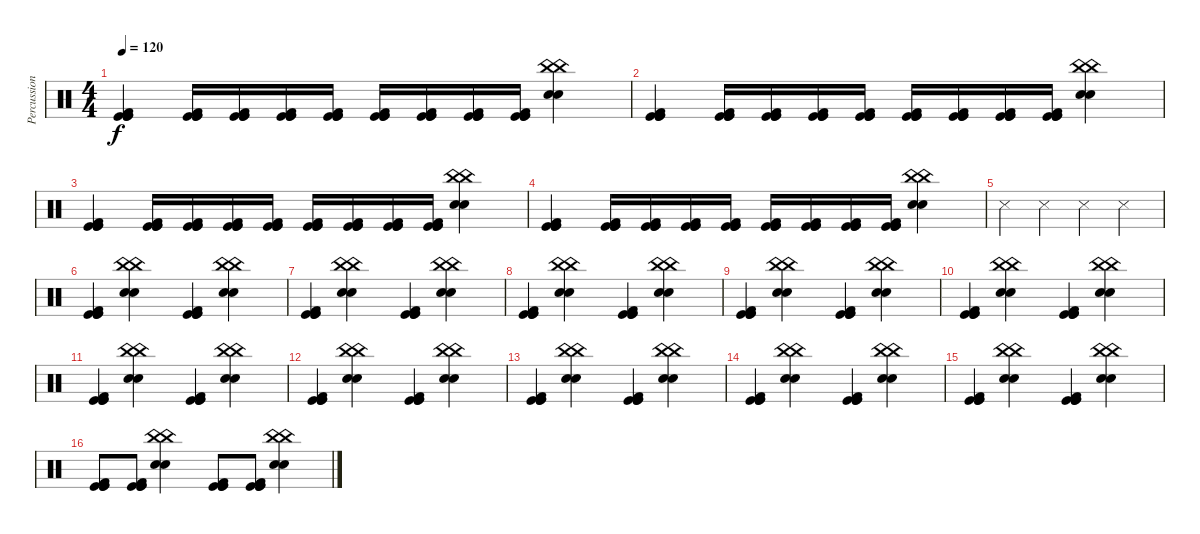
\track ("Percussion" "Percussion") {instrument percussion}
\staff {score}
\articulation defaults
\ts (4 4)
\tempo 120
\clef neutral
\ks c
("Kick (hit)" "Kick (hit)" "Kick (hit)" "Kick (hit) 2").4{dy f} ("Kick (hit)" "Kick (hit)" "Kick (hit)" "Kick (hit) 2").16 ("Kick (hit)" "Kick (hit)" "Kick (hit)" "Kick (hit) 2").16 ("Kick (hit)" "Kick (hit)" "Kick (hit)" "Kick (hit) 2").16 ("Kick (hit)" "Kick (hit)" "Kick (hit)" "Kick (hit) 2").16 ("Kick (hit)" "Kick (hit)" "Kick (hit)" "Kick (hit) 2").16 ("Kick (hit)" "Kick (hit)" "Kick (hit)" "Kick (hit) 2").16 ("Kick (hit)" "Kick (hit)" "Kick (hit)" "Kick (hit) 2").16 ("Kick (hit)" "Kick (hit)" "Kick (hit)" "Kick (hit) 2").16 ("China (hit)" "China (hit)" "Snare (hit) 2" "Snare (hit) 2").4 |
("Kick (hit)" "Kick (hit)" "Kick (hit)" "Kick (hit) 2").4 ("Kick (hit)" "Kick (hit)" "Kick (hit)" "Kick (hit) 2").16 ("Kick (hit)" "Kick (hit)" "Kick (hit)" "Kick (hit) 2").16 ("Kick (hit)" "Kick (hit)" "Kick (hit)" "Kick (hit) 2").16 ("Kick (hit)" "Kick (hit)" "Kick (hit)" "Kick (hit) 2").16 ("Kick (hit)" "Kick (hit)" "Kick (hit)" "Kick (hit) 2").16 ("Kick (hit)" "Kick (hit)" "Kick (hit)" "Kick (hit) 2").16 ("Kick (hit)" "Kick (hit)" "Kick (hit)" "Kick (hit) 2").16 ("Kick (hit)" "Kick (hit)" "Kick (hit)" "Kick (hit) 2").16 ("China (hit)" "China (hit)" "Snare (hit) 2" "Snare (hit) 2").4 |
("Kick (hit)" "Kick (hit)" "Kick (hit)" "Kick (hit) 2").4 ("Kick (hit)" "Kick (hit)" "Kick (hit)" "Kick (hit) 2").16 ("Kick (hit)" "Kick (hit)" "Kick (hit)" "Kick (hit) 2").16 ("Kick (hit)" "Kick (hit)" "Kick (hit)" "Kick (hit) 2").16 ("Kick (hit)" "Kick (hit)" "Kick (hit)" "Kick (hit) 2").16 ("Kick (hit)" "Kick (hit)" "Kick (hit)" "Kick (hit) 2").16 ("Kick (hit)" "Kick (hit)" "Kick (hit)" "Kick (hit) 2").16 ("Kick (hit)" "Kick (hit)" "Kick (hit)" "Kick (hit) 2").16 ("Kick (hit)" "Kick (hit)" "Kick (hit)" "Kick (hit) 2").16 ("China (hit)" "China (hit)" "Snare (hit) 2" "Snare (hit) 2").4 |
("Kick (hit)" "Kick (hit)" "Kick (hit)" "Kick (hit) 2").4 ("Kick (hit)" "Kick (hit)" "Kick (hit)" "Kick (hit) 2").16 ("Kick (hit)" "Kick (hit)" "Kick (hit)" "Kick (hit) 2").16 ("Kick (hit)" "Kick (hit)" "Kick (hit)" "Kick (hit) 2").16 ("Kick (hit)" "Kick (hit)" "Kick (hit)" "Kick (hit) 2").16 ("Kick (hit)" "Kick (hit)" "Kick (hit)" "Kick (hit) 2").16 ("Kick (hit)" "Kick (hit)" "Kick (hit)" "Kick (hit) 2").16 ("Kick (hit)" "Kick (hit)" "Kick (hit)" "Kick (hit) 2").16 ("Kick (hit)" "Kick (hit)" "Kick (hit)" "Kick (hit) 2").16 ("China (hit)" "China (hit)" "Snare (hit) 2" "Snare (hit) 2").4 |
"Snare (side stick) 3".4 "Snare (side stick) 3".4 "Snare (side stick) 3".4 "Snare (side stick) 3".4 |
("Kick (hit)" "Kick (hit)" "Kick (hit)" "Kick (hit) 2").4 ("China (hit)" "China (hit)" "Snare (hit) 2" "Snare (hit) 2").4 ("Kick (hit)" "Kick (hit)" "Kick (hit)" "Kick (hit) 2").4 ("China (hit)" "China (hit)" "Snare (hit) 2" "Snare (hit) 2").4 |
("Kick (hit)" "Kick (hit)" "Kick (hit)" "Kick (hit) 2").4 ("China (hit)" "China (hit)" "Snare (hit) 2" "Snare (hit) 2").4 ("Kick (hit)" "Kick (hit)" "Kick (hit)" "Kick (hit) 2").4 ("China (hit)" "China (hit)" "Snare (hit) 2" "Snare (hit) 2").4 |
("Kick (hit)" "Kick (hit)" "Kick (hit)" "Kick (hit) 2").4 ("China (hit)" "China (hit)" "Snare (hit) 2" "Snare (hit) 2").4 ("Kick (hit)" "Kick (hit)" "Kick (hit)" "Kick (hit) 2").4 ("China (hit)" "China (hit)" "Snare (hit) 2" "Snare (hit) 2").4 |
("Kick (hit)" "Kick (hit)" "Kick (hit)" "Kick (hit) 2").4 ("China (hit)" "China (hit)" "Snare (hit) 2" "Snare (hit) 2").4 ("Kick (hit)" "Kick (hit)" "Kick (hit)" "Kick (hit) 2").4 ("China (hit)" "China (hit)" "Snare (hit) 2" "Snare (hit) 2").4 |
("Kick (hit)" "Kick (hit)" "Kick (hit)" "Kick (hit) 2").4 ("China (hit)" "China (hit)" "Snare (hit) 2" "Snare (hit) 2").4 ("Kick (hit)" "Kick (hit)" "Kick (hit)" "Kick (hit) 2").4 ("China (hit)" "China (hit)" "Snare (hit) 2" "Snare (hit) 2").4 |
("Kick (hit)" "Kick (hit)" "Kick (hit)" "Kick (hit) 2").4 ("China (hit)" "China (hit)" "Snare (hit) 2" "Snare (hit) 2").4 ("Kick (hit)" "Kick (hit)" "Kick (hit)" "Kick (hit) 2").4 ("China (hit)" "China (hit)" "Snare (hit) 2" "Snare (hit) 2").4 |
("Kick (hit)" "Kick (hit)" "Kick (hit)" "Kick (hit) 2").4 ("China (hit)" "China (hit)" "Snare (hit) 2" "Snare (hit) 2").4 ("Kick (hit)" "Kick (hit)" "Kick (hit)" "Kick (hit) 2").4 ("China (hit)" "China (hit)" "Snare (hit) 2" "Snare (hit) 2").4 |
("Kick (hit)" "Kick (hit)" "Kick (hit)" "Kick (hit) 2").4 ("China (hit)" "China (hit)" "Snare (hit) 2" "Snare (hit) 2").4 ("Kick (hit)" "Kick (hit)" "Kick (hit)" "Kick (hit) 2").4 ("China (hit)" "China (hit)" "Snare (hit) 2" "Snare (hit) 2").4 |
("Kick (hit)" "Kick (hit)" "Kick (hit)" "Kick (hit) 2").4 ("China (hit)" "China (hit)" "Snare (hit) 2" "Snare (hit) 2").4 ("Kick (hit)" "Kick (hit)" "Kick (hit)" "Kick (hit) 2").4 ("China (hit)" "China (hit)" "Snare (hit) 2" "Snare (hit) 2").4 |
("Kick (hit)" "Kick (hit)" "Kick (hit)" "Kick (hit) 2").4 ("China (hit)" "China (hit)" "Snare (hit) 2" "Snare (hit) 2").4 ("Kick (hit)" "Kick (hit)" "Kick (hit)" "Kick (hit) 2").4 ("China (hit)" "China (hit)" "Snare (hit) 2" "Snare (hit) 2").4 |
("Kick (hit)" "Kick (hit)" "Kick (hit)" "Kick (hit) 2").8 ("Kick (hit)" "Kick (hit)" "Kick (hit)" "Kick (hit) 2").8 ("China (hit)" "China (hit)" "Snare (hit) 2" "Snare (hit) 2").4 ("Kick (hit)" "Kick (hit)" "Kick (hit)" "Kick (hit) 2").8 ("Kick (hit)" "Kick (hit)" "Kick (hit)" "Kick (hit) 2").8 ("China (hit)" "China (hit)" "Snare (hit) 2" "Snare (hit) 2").4
